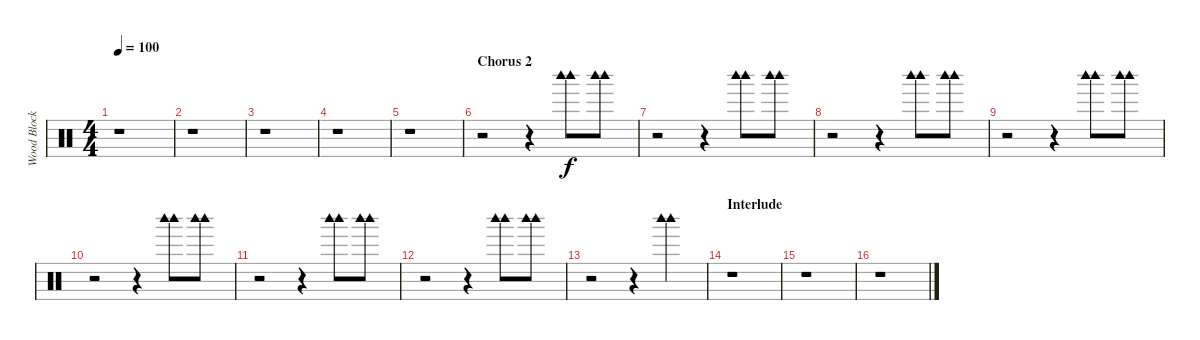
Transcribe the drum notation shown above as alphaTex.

\track ("Wood Block - Chad" "Wood Block") {instrument percussion}
\staff {score}
\articulation defaults
\ts (4 4)
\tempo 100
\clef neutral
\ks c
r.1{dy f} |
r.1 |
r.1 |
r.1 |
r.1 |
\section ("" "Chorus 2")
r.2 r.4 ("Woodblock high (hit)" "Woodblock high (hit)").8 ("Woodblock high (hit)" "Woodblock high (hit)").8 |
r.2 r.4 ("Woodblock high (hit)" "Woodblock high (hit)").8 ("Woodblock high (hit)" "Woodblock high (hit)").8 |
r.2 r.4 ("Woodblock high (hit)" "Woodblock high (hit)").8 ("Woodblock high (hit)" "Woodblock high (hit)").8 |
r.2 r.4 ("Woodblock high (hit)" "Woodblock high (hit)").8 ("Woodblock high (hit)" "Woodblock high (hit)").8 |
r.2 r.4 ("Woodblock high (hit)" "Woodblock high (hit)").8 ("Woodblock high (hit)" "Woodblock high (hit)").8 |
r.2 r.4 ("Woodblock high (hit)" "Woodblock high (hit)").8 ("Woodblock high (hit)" "Woodblock high (hit)").8 |
r.2 r.4 ("Woodblock high (hit)" "Woodblock high (hit)").8 ("Woodblock high (hit)" "Woodblock high (hit)").8 |
r.2 r.4 ("Woodblock high (hit)" "Woodblock high (hit)").4 |
\section ("" "Interlude")
r.1 |
r.1 |
r.1
